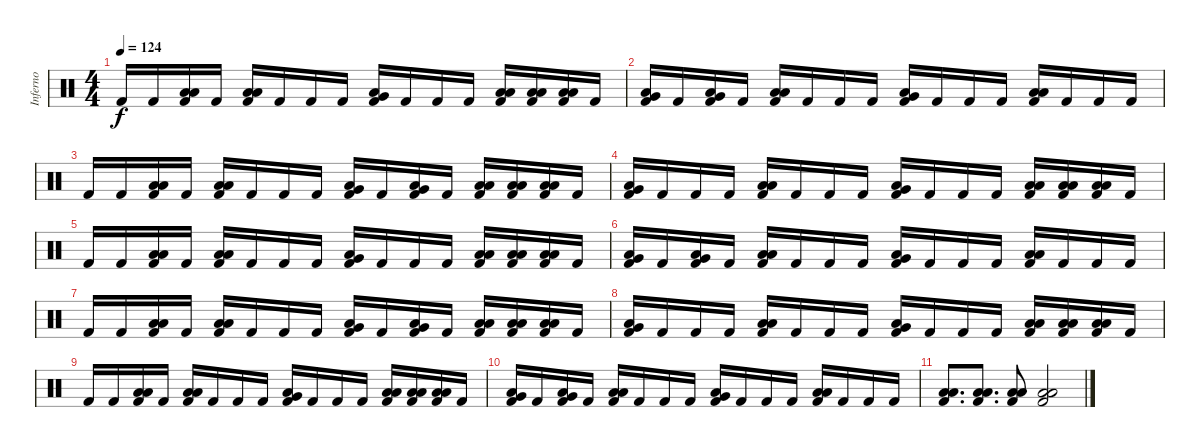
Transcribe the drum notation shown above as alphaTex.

\track ("Inferno" "Inferno") {instrument percussion}
\staff {score}
\articulation defaults
\ts (4 4)
\tempo 124
\clef neutral
\ks c "Kick (hit) 2".16{dy f} "Kick (hit) 2".16
("Low Tom (hit)" "Low Floor Tom (hit)" "Kick (hit) 2").16 "Kick (hit) 2".16 ("Low Tom (hit)" "Low Floor Tom (hit)" "Kick (hit) 2").16 "Kick (hit) 2".16 "Kick (hit) 2".16 "Kick (hit) 2".16 ("Very Low Tom (hit)" "Low Floor Tom (hit)" "Kick (hit) 2").16 "Kick (hit) 2".16 "Kick (hit) 2".16 "Kick (hit) 2".16 ("Low Tom (hit)" "Low Floor Tom (hit)" "Kick (hit) 2").16 ("Low Tom (hit)" "Low Floor Tom (hit)" "Kick (hit) 2").16 ("Low Tom (hit)" "Low Floor Tom (hit)" "Kick (hit) 2").16 "Kick (hit) 2".16 |
("Very Low Tom (hit)" "Low Floor Tom (hit)" "Kick (hit) 2").16 "Kick (hit) 2".16 ("Very Low Tom (hit)" "Low Floor Tom (hit)" "Kick (hit) 2").16 "Kick (hit) 2".16 ("Low Tom (hit)" "Low Floor Tom (hit)" "Kick (hit) 2").16 "Kick (hit) 2".16 "Kick (hit) 2".16 "Kick (hit) 2".16 ("Very Low Tom (hit)" "Low Floor Tom (hit)" "Kick (hit) 2").16 "Kick (hit) 2".16 "Kick (hit) 2".16 "Kick (hit) 2".16 ("Low Tom (hit)" "Low Floor Tom (hit)" "Kick (hit) 2").16 "Kick (hit) 2".16 "Kick (hit) 2".16 "Kick (hit) 2".16 |
"Kick (hit) 2".16 "Kick (hit) 2".16 ("Low Tom (hit)" "Low Floor Tom (hit)" "Kick (hit) 2").16 "Kick (hit) 2".16 ("Low Tom (hit)" "Low Floor Tom (hit)" "Kick (hit) 2").16 "Kick (hit) 2".16 "Kick (hit) 2".16 "Kick (hit) 2".16 ("Very Low Tom (hit)" "Low Floor Tom (hit)" "Kick (hit) 2").16 "Kick (hit) 2".16 ("Very Low Tom (hit)" "Low Floor Tom (hit)" "Kick (hit) 2").16 "Kick (hit) 2".16 ("Low Tom (hit)" "Low Floor Tom (hit)" "Kick (hit) 2").16 ("Low Tom (hit)" "Low Floor Tom (hit)" "Kick (hit) 2").16 ("Low Tom (hit)" "Low Floor Tom (hit)" "Kick (hit) 2").16 "Kick (hit) 2".16 |
("Very Low Tom (hit)" "Low Floor Tom (hit)" "Kick (hit) 2").16 "Kick (hit) 2".16 "Kick (hit) 2".16 "Kick (hit) 2".16 ("Low Tom (hit)" "Low Floor Tom (hit)" "Kick (hit) 2").16 "Kick (hit) 2".16 "Kick (hit) 2".16 "Kick (hit) 2".16 ("Very Low Tom (hit)" "Low Floor Tom (hit)" "Kick (hit) 2").16 "Kick (hit) 2".16 "Kick (hit) 2".16 "Kick (hit) 2".16 ("Low Tom (hit)" "Low Floor Tom (hit)" "Kick (hit) 2").16 ("Low Tom (hit)" "Low Floor Tom (hit)" "Kick (hit) 2").16 ("Low Tom (hit)" "Low Floor Tom (hit)" "Kick (hit) 2").16 "Kick (hit) 2".16 |
"Kick (hit) 2".16 "Kick (hit) 2".16 ("Low Tom (hit)" "Low Floor Tom (hit)" "Kick (hit) 2").16 "Kick (hit) 2".16 ("Low Tom (hit)" "Low Floor Tom (hit)" "Kick (hit) 2").16 "Kick (hit) 2".16 "Kick (hit) 2".16 "Kick (hit) 2".16 ("Very Low Tom (hit)" "Low Floor Tom (hit)" "Kick (hit) 2").16 "Kick (hit) 2".16 "Kick (hit) 2".16 "Kick (hit) 2".16 ("Low Tom (hit)" "Low Floor Tom (hit)" "Kick (hit) 2").16 ("Low Tom (hit)" "Low Floor Tom (hit)" "Kick (hit) 2").16 ("Low Tom (hit)" "Low Floor Tom (hit)" "Kick (hit) 2").16 "Kick (hit) 2".16 |
("Very Low Tom (hit)" "Low Floor Tom (hit)" "Kick (hit) 2").16 "Kick (hit) 2".16 ("Very Low Tom (hit)" "Low Floor Tom (hit)" "Kick (hit) 2").16 "Kick (hit) 2".16 ("Low Tom (hit)" "Low Floor Tom (hit)" "Kick (hit) 2").16 "Kick (hit) 2".16 "Kick (hit) 2".16 "Kick (hit) 2".16 ("Very Low Tom (hit)" "Low Floor Tom (hit)" "Kick (hit) 2").16 "Kick (hit) 2".16 "Kick (hit) 2".16 "Kick (hit) 2".16 ("Low Tom (hit)" "Low Floor Tom (hit)" "Kick (hit) 2").16 "Kick (hit) 2".16 "Kick (hit) 2".16 "Kick (hit) 2".16 |
"Kick (hit) 2".16 "Kick (hit) 2".16 ("Low Tom (hit)" "Low Floor Tom (hit)" "Kick (hit) 2").16 "Kick (hit) 2".16 ("Low Tom (hit)" "Low Floor Tom (hit)" "Kick (hit) 2").16 "Kick (hit) 2".16 "Kick (hit) 2".16 "Kick (hit) 2".16 ("Very Low Tom (hit)" "Low Floor Tom (hit)" "Kick (hit) 2").16 "Kick (hit) 2".16 ("Very Low Tom (hit)" "Low Floor Tom (hit)" "Kick (hit) 2").16 "Kick (hit) 2".16 ("Low Tom (hit)" "Low Floor Tom (hit)" "Kick (hit) 2").16 ("Low Tom (hit)" "Low Floor Tom (hit)" "Kick (hit) 2").16 ("Low Tom (hit)" "Low Floor Tom (hit)" "Kick (hit) 2").16 "Kick (hit) 2".16 |
("Very Low Tom (hit)" "Low Floor Tom (hit)" "Kick (hit) 2").16 "Kick (hit) 2".16 "Kick (hit) 2".16 "Kick (hit) 2".16 ("Low Tom (hit)" "Low Floor Tom (hit)" "Kick (hit) 2").16 "Kick (hit) 2".16 "Kick (hit) 2".16 "Kick (hit) 2".16 ("Very Low Tom (hit)" "Low Floor Tom (hit)" "Kick (hit) 2").16 "Kick (hit) 2".16 "Kick (hit) 2".16 "Kick (hit) 2".16 ("Low Tom (hit)" "Low Floor Tom (hit)" "Kick (hit) 2").16 ("Low Tom (hit)" "Low Floor Tom (hit)" "Kick (hit) 2").16 ("Low Tom (hit)" "Low Floor Tom (hit)" "Kick (hit) 2").16 "Kick (hit) 2".16 |
"Kick (hit) 2".16 "Kick (hit) 2".16 ("Low Tom (hit)" "Low Floor Tom (hit)" "Kick (hit) 2").16 "Kick (hit) 2".16 ("Low Tom (hit)" "Low Floor Tom (hit)" "Kick (hit) 2").16 "Kick (hit) 2".16 "Kick (hit) 2".16 "Kick (hit) 2".16 ("Very Low Tom (hit)" "Low Floor Tom (hit)" "Kick (hit) 2").16 "Kick (hit) 2".16 "Kick (hit) 2".16 "Kick (hit) 2".16 ("Low Tom (hit)" "Low Floor Tom (hit)" "Kick (hit) 2").16 ("Low Tom (hit)" "Low Floor Tom (hit)" "Kick (hit) 2").16 ("Low Tom (hit)" "Low Floor Tom (hit)" "Kick (hit) 2").16 "Kick (hit) 2".16 |
("Very Low Tom (hit)" "Low Floor Tom (hit)" "Kick (hit) 2").16 "Kick (hit) 2".16 ("Very Low Tom (hit)" "Low Floor Tom (hit)" "Kick (hit) 2").16 "Kick (hit) 2".16 ("Low Tom (hit)" "Low Floor Tom (hit)" "Kick (hit) 2").16 "Kick (hit) 2".16 "Kick (hit) 2".16 "Kick (hit) 2".16 ("Very Low Tom (hit)" "Low Floor Tom (hit)" "Kick (hit) 2").16 "Kick (hit) 2".16 "Kick (hit) 2".16 "Kick (hit) 2".16 ("Low Tom (hit)" "Low Floor Tom (hit)" "Kick (hit) 2").16 "Kick (hit) 2".16 "Kick (hit) 2".16 "Kick (hit) 2".16 |
("Low Tom (hit)" "Low Floor Tom (hit)" "Kick (hit) 2").8{d} ("Low Tom (hit)" "Low Floor Tom (hit)" "Kick (hit) 2").8{d} ("Low Tom (hit)" "Low Floor Tom (hit)" "Kick (hit) 2").8 ("Low Tom (hit)" "Low Floor Tom (hit)" "Kick (hit) 2").2
